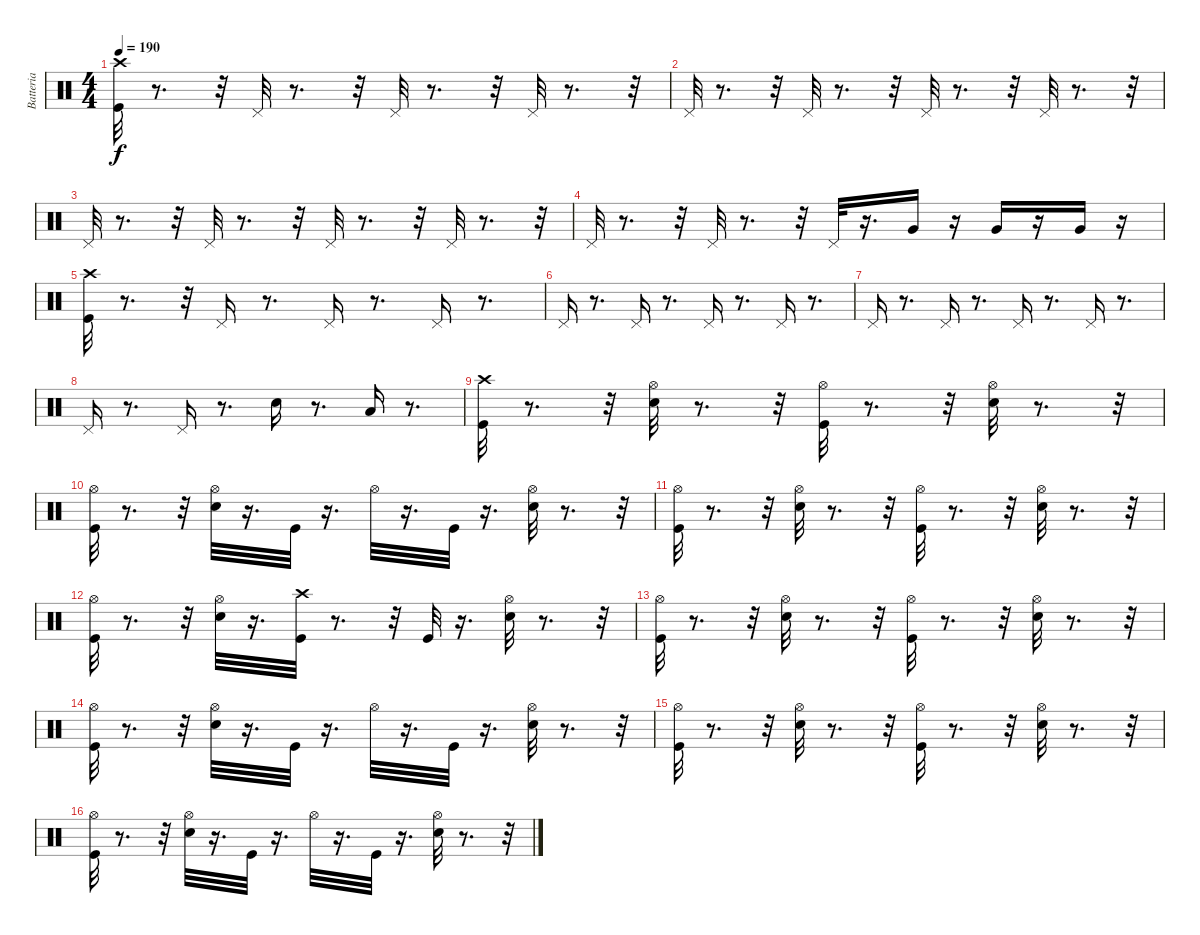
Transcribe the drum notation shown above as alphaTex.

\track ("Batteria" "Batteria") {instrument percussion}
\staff {score}
\articulation defaults
\ts (4 4)
\tempo 190
\clef neutral
\ks c
("Kick (hit)" "Crash high (hit)").32{dy f} r.8{d} r.32 "Pedal Hi-Hat (hit)".32 r.8{d} r.32 "Pedal Hi-Hat (hit)".32 r.8{d} r.32 "Pedal Hi-Hat (hit)".32 r.8{d} r.32 |
"Pedal Hi-Hat (hit)".32 r.8{d} r.32 "Pedal Hi-Hat (hit)".32 r.8{d} r.32 "Pedal Hi-Hat (hit)".32 r.8{d} r.32 "Pedal Hi-Hat (hit)".32 r.8{d} r.32 |
"Pedal Hi-Hat (hit)".32 r.8{d} r.32 "Pedal Hi-Hat (hit)".32 r.8{d} r.32 "Pedal Hi-Hat (hit)".32 r.8{d} r.32 "Pedal Hi-Hat (hit)".32 r.8{d} r.32 |
"Pedal Hi-Hat (hit)".32 r.8{d} r.32 "Pedal Hi-Hat (hit)".32 r.8{d} r.32 "Pedal Hi-Hat (hit)".32 r.16{d} "Very Low Tom (hit)".16 r.16 "Very Low Tom (hit)".16 r.16 "Very Low Tom (hit)".16 r.16 |
("Kick (hit)" "Crash high (hit)").32 r.8{d} r.32 "Pedal Hi-Hat (hit)".16 r.8{d} "Pedal Hi-Hat (hit)".16 r.8{d} "Pedal Hi-Hat (hit)".16 r.8{d} |
"Pedal Hi-Hat (hit)".16 r.8{d} "Pedal Hi-Hat (hit)".16 r.8{d} "Pedal Hi-Hat (hit)".16 r.8{d} "Pedal Hi-Hat (hit)".16 r.8{d} |
"Pedal Hi-Hat (hit)".16 r.8{d} "Pedal Hi-Hat (hit)".16 r.8{d} "Pedal Hi-Hat (hit)".16 r.8{d} "Pedal Hi-Hat (hit)".16 r.8{d} |
"Pedal Hi-Hat (hit)".16 r.8{d} "Pedal Hi-Hat (hit)".16 r.8{d} "Snare (hit) 2".16 r.8{d} "Low Tom (hit)".16 r.8{d} |
("Kick (hit)" "Crash high (hit)").32 r.8{d} r.32 ("Snare (hit) 2" "Hi-Hat (open)").32 r.8{d} r.32 ("Hi-Hat (open)" "Kick (hit)").32 r.8{d} r.32 ("Snare (hit) 2" "Hi-Hat (open)").32 r.8{d} r.32 |
("Kick (hit)" "Hi-Hat (open)").32 r.8{d} r.32 ("Hi-Hat (open)" "Snare (hit) 2").32 r.16{d} "Kick (hit)".32 r.16{d} "Hi-Hat (open)".32 r.16{d} "Kick (hit)".32 r.16{d} ("Snare (hit) 2" "Hi-Hat (open)").32 r.8{d} r.32 |
("Hi-Hat (open)" "Kick (hit)").32 r.8{d} r.32 ("Snare (hit) 2" "Hi-Hat (open)").32 r.8{d} r.32 ("Kick (hit)" "Hi-Hat (open)").32 r.8{d} r.32 ("Snare (hit) 2" "Hi-Hat (open)").32 r.8{d} r.32 |
("Hi-Hat (open)" "Kick (hit)").32 r.8{d} r.32 ("Snare (hit) 2" "Hi-Hat (open)").32 r.16{d} ("Kick (hit)" "Crash high (hit)").32 r.8{d} r.32 "Kick (hit)".32 r.16{d} ("Hi-Hat (open)" "Snare (hit) 2").32 r.8{d} r.32 |
("Hi-Hat (open)" "Kick (hit)").32 r.8{d} r.32 ("Snare (hit) 2" "Hi-Hat (open)").32 r.8{d} r.32 ("Hi-Hat (open)" "Kick (hit)").32 r.8{d} r.32 ("Snare (hit) 2" "Hi-Hat (open)").32 r.8{d} r.32 |
("Kick (hit)" "Hi-Hat (open)").32 r.8{d} r.32 ("Snare (hit) 2" "Hi-Hat (open)").32 r.16{d} "Kick (hit)".32 r.16{d} "Hi-Hat (open)".32 r.16{d} "Kick (hit)".32 r.16{d} ("Snare (hit) 2" "Hi-Hat (open)").32 r.8{d} r.32 |
("Kick (hit)" "Hi-Hat (open)").32 r.8{d} r.32 ("Hi-Hat (open)" "Snare (hit) 2").32 r.8{d} r.32 ("Kick (hit)" "Hi-Hat (open)").32 r.8{d} r.32 ("Snare (hit) 2" "Hi-Hat (open)").32 r.8{d} r.32 |
("Hi-Hat (open)" "Kick (hit)").32 r.8{d} r.32 ("Snare (hit) 2" "Hi-Hat (open)").32 r.16{d} "Kick (hit)".32 r.16{d} "Hi-Hat (open)".32 r.16{d} "Kick (hit)".32 r.16{d} ("Hi-Hat (open)" "Snare (hit) 2").32 r.8{d} r.32
